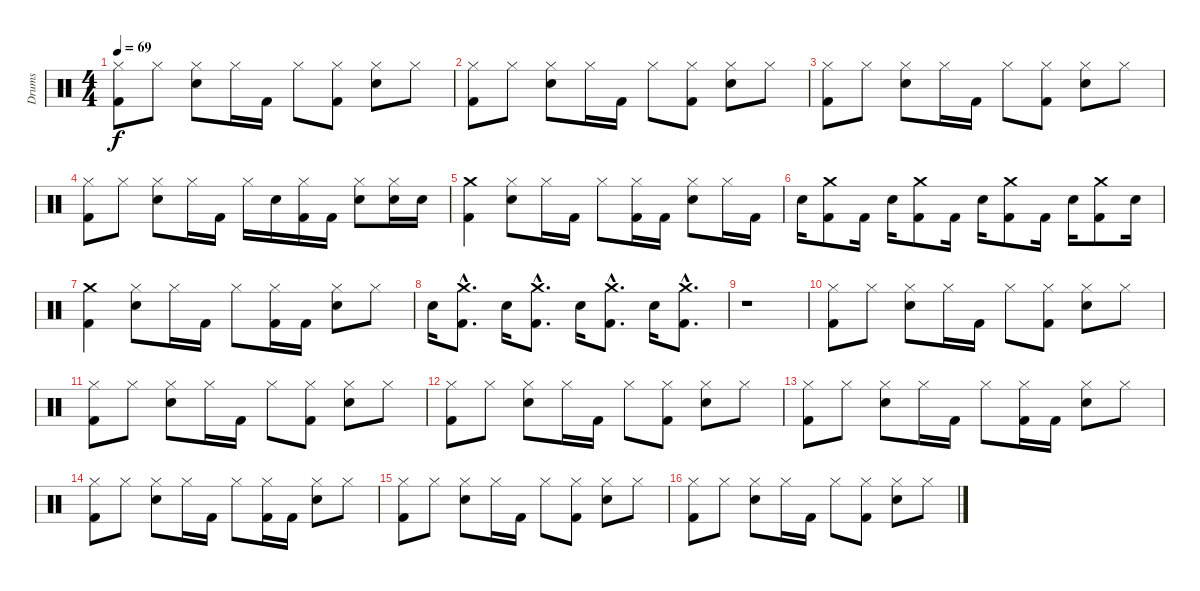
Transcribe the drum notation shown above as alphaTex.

\track ("Drums" "Drums") {instrument percussion}
\staff {score}
\articulation defaults
\ts (4 4)
\tempo 69
\clef neutral
\ks c
("Hi-Hat (closed)" "Kick (hit) 2").8{dy f} "Hi-Hat (closed)".8 ("Hi-Hat (closed)" "Snare (hit) 2").8 "Hi-Hat (closed)".16 "Kick (hit) 2".16 "Hi-Hat (closed)".8 ("Kick (hit) 2" "Hi-Hat (closed)").8 ("Hi-Hat (closed)" "Snare (hit) 2").8 "Hi-Hat (closed)".8 |
("Hi-Hat (closed)" "Kick (hit) 2").8 "Hi-Hat (closed)".8 ("Hi-Hat (closed)" "Snare (hit) 2").8 "Hi-Hat (closed)".16 "Kick (hit) 2".16 "Hi-Hat (closed)".8 ("Kick (hit) 2" "Hi-Hat (closed)").8 ("Hi-Hat (closed)" "Snare (hit) 2").8 "Hi-Hat (closed)".8 |
("Kick (hit) 2" "Hi-Hat (closed)").8 "Hi-Hat (closed)".8 ("Hi-Hat (closed)" "Snare (hit) 2").8 "Hi-Hat (closed)".16 "Kick (hit) 2".16 "Hi-Hat (closed)".8 ("Kick (hit) 2" "Hi-Hat (closed)").8 ("Snare (hit) 2" "Hi-Hat (closed)").8 "Hi-Hat (closed)".8 |
("Hi-Hat (closed)" "Kick (hit) 2").8 "Hi-Hat (closed)".8 ("Hi-Hat (closed)" "Snare (hit) 2").8 "Hi-Hat (closed)".16 "Kick (hit) 2".16 "Hi-Hat (closed)".16 "Snare (hit) 2".16 ("Hi-Hat (closed)" "Kick (hit) 2").16 "Kick (hit) 2".16 ("Snare (hit) 2" "Hi-Hat (closed)").8 ("Hi-Hat (closed)" "Snare (hit) 2").16 "Snare (hit) 2".16 |
("Crash medium (hit)" "Kick (hit) 2").4 ("Snare (hit) 2" "Hi-Hat (closed)").8 "Hi-Hat (closed)".16 "Kick (hit) 2".16 "Hi-Hat (closed)".8 ("Hi-Hat (closed)" "Kick (hit) 2").16 "Kick (hit) 2".16 ("Hi-Hat (closed)" "Snare (hit) 2").8 "Hi-Hat (closed)".16 "Kick (hit) 2".16 |
"Snare (hit) 2".16 ("Crash medium (hit)" "Kick (hit) 2").8 "Kick (hit) 2".16 "Snare (hit) 2".16 ("Crash medium (hit)" "Kick (hit) 2").8 "Kick (hit) 2".16 "Snare (hit) 2".16 ("Crash medium (hit)" "Kick (hit) 2").8 "Kick (hit) 2".16 "Snare (hit) 2".16 ("Crash medium (hit)" "Kick (hit) 2").8 "Snare (hit) 2".16 |
("Crash medium (hit)" "Kick (hit) 2").4 ("Hi-Hat (closed)" "Snare (hit) 2").8 "Hi-Hat (closed)".16 "Kick (hit) 2".16 "Hi-Hat (closed)".8 ("Kick (hit) 2" "Hi-Hat (closed)").16 "Kick (hit) 2".16 ("Hi-Hat (closed)" "Snare (hit) 2").8 "Hi-Hat (closed)".8 |
"Snare (hit) 2".16 ("Crash medium (hit)"{hac} "Kick (hit) 2"{hac}).8{d} "Snare (hit) 2".16 ("Crash medium (hit)"{hac} "Kick (hit) 2"{hac}).8{d} "Snare (hit) 2".16 ("Crash medium (hit)"{hac} "Kick (hit) 2"{hac}).8{d} "Snare (hit) 2".16 ("Crash medium (hit)"{hac} "Kick (hit) 2"{hac}).8{d} |
r.1 |
("Hi-Hat (closed)" "Kick (hit) 2").8 "Hi-Hat (closed)".8 ("Hi-Hat (closed)" "Snare (hit) 2").8 "Hi-Hat (closed)".16 "Kick (hit) 2".16 "Hi-Hat (closed)".8 ("Kick (hit) 2" "Hi-Hat (closed)").8 ("Hi-Hat (closed)" "Snare (hit) 2").8 "Hi-Hat (closed)".8 |
("Hi-Hat (closed)" "Kick (hit) 2").8 "Hi-Hat (closed)".8 ("Hi-Hat (closed)" "Snare (hit) 2").8 "Hi-Hat (closed)".16 "Kick (hit) 2".16 "Hi-Hat (closed)".8 ("Kick (hit) 2" "Hi-Hat (closed)").8 ("Hi-Hat (closed)" "Snare (hit) 2").8 "Hi-Hat (closed)".8 |
("Hi-Hat (closed)" "Kick (hit) 2").8 "Hi-Hat (closed)".8 ("Hi-Hat (closed)" "Snare (hit) 2").8 "Hi-Hat (closed)".16 "Kick (hit) 2".16 "Hi-Hat (closed)".8 ("Kick (hit) 2" "Hi-Hat (closed)").8 ("Hi-Hat (closed)" "Snare (hit) 2").8 "Hi-Hat (closed)".8 |
("Hi-Hat (closed)" "Kick (hit) 2").8 "Hi-Hat (closed)".8 ("Hi-Hat (closed)" "Snare (hit) 2").8 "Hi-Hat (closed)".16 "Kick (hit) 2".16 "Hi-Hat (closed)".8 ("Kick (hit) 2" "Hi-Hat (closed)").16 "Kick (hit) 2".16 ("Hi-Hat (closed)" "Snare (hit) 2").8 "Hi-Hat (closed)".8 |
("Hi-Hat (closed)" "Kick (hit) 2").8 "Hi-Hat (closed)".8 ("Hi-Hat (closed)" "Snare (hit) 2").8 "Hi-Hat (closed)".16 "Kick (hit) 2".16 "Hi-Hat (closed)".8 ("Kick (hit) 2" "Hi-Hat (closed)").16 "Kick (hit) 2".16 ("Hi-Hat (closed)" "Snare (hit) 2").8 "Hi-Hat (closed)".8 |
("Hi-Hat (closed)" "Kick (hit) 2").8 "Hi-Hat (closed)".8 ("Hi-Hat (closed)" "Snare (hit) 2").8 "Hi-Hat (closed)".16 "Kick (hit) 2".16 "Hi-Hat (closed)".8 ("Kick (hit) 2" "Hi-Hat (closed)").8 ("Hi-Hat (closed)" "Snare (hit) 2").8 "Hi-Hat (closed)".8 |
("Hi-Hat (closed)" "Kick (hit) 2").8 "Hi-Hat (closed)".8 ("Hi-Hat (closed)" "Snare (hit) 2").8 "Hi-Hat (closed)".16 "Kick (hit) 2".16 "Hi-Hat (closed)".8 ("Kick (hit) 2" "Hi-Hat (closed)").8 ("Hi-Hat (closed)" "Snare (hit) 2").8 "Hi-Hat (closed)".8
